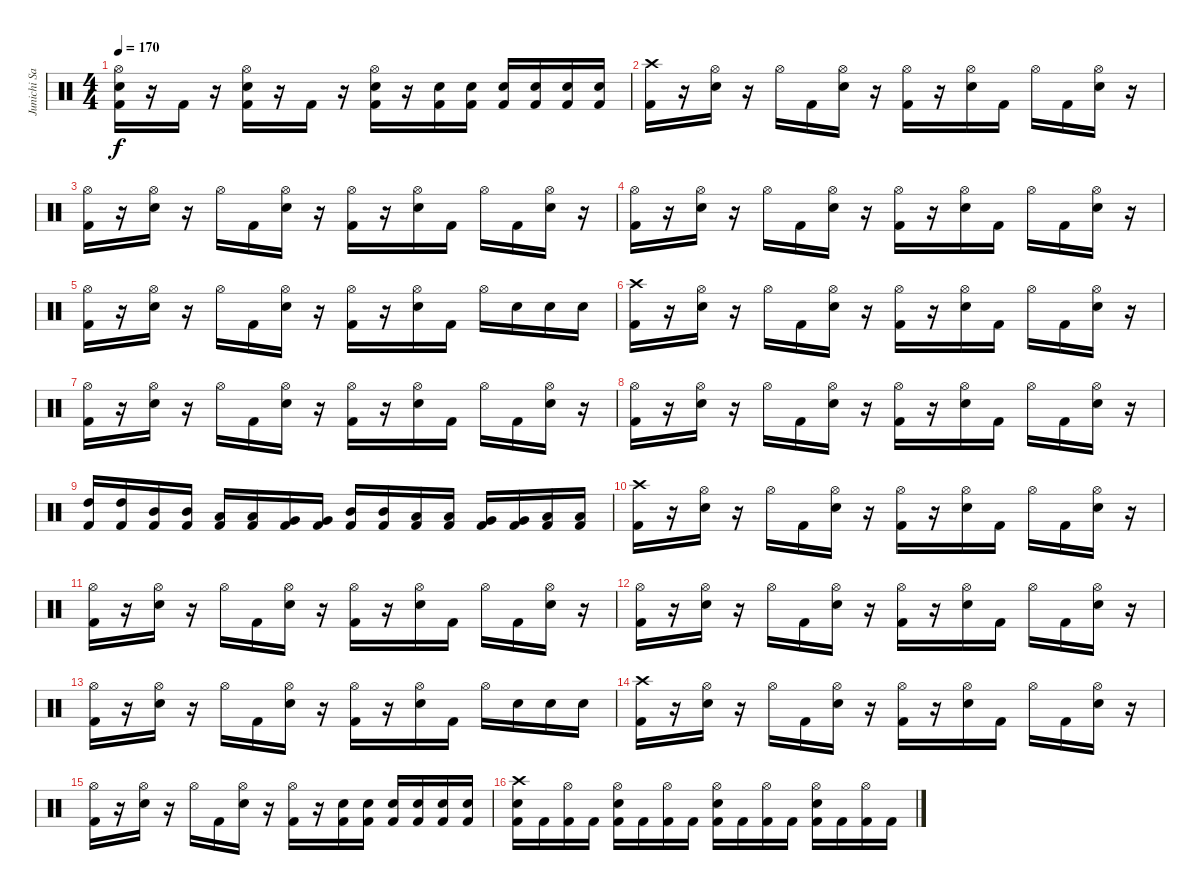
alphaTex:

\track ("Junichi Sato" "Junichi Sa") {instrument percussion}
\staff {score}
\articulation defaults
\ts (4 4)
\tempo 170
\clef neutral
\ks c
("Hi-Hat (open)" "Electric Snare (hit)" "Kick (hit) 2").16{dy f} r.16 "Kick (hit) 2".16 r.16 ("Hi-Hat (open)" "Electric Snare (hit)" "Kick (hit) 2").16 r.16 "Kick (hit) 2".16 r.16 ("Hi-Hat (open)" "Electric Snare (hit)" "Kick (hit) 2").16 r.16 ("Electric Snare (hit)" "Kick (hit) 2").16 ("Electric Snare (hit)" "Kick (hit) 2").16 ("Electric Snare (hit)" "Kick (hit) 2").16 ("Electric Snare (hit)" "Kick (hit) 2").16 ("Electric Snare (hit)" "Kick (hit) 2").16 ("Electric Snare (hit)" "Kick (hit) 2").16 |
("Crash high (hit)" "Kick (hit) 2").16 r.16 ("Hi-Hat (open)" "Electric Snare (hit)").16 r.16 "Hi-Hat (open)".16 "Kick (hit) 2".16 ("Hi-Hat (open)" "Electric Snare (hit)").16 r.16 ("Hi-Hat (open)" "Kick (hit) 2").16 r.16 ("Hi-Hat (open)" "Electric Snare (hit)").16 "Kick (hit) 2".16 "Hi-Hat (open)".16 "Kick (hit) 2".16 ("Hi-Hat (open)" "Electric Snare (hit)").16 r.16 |
("Hi-Hat (open)" "Kick (hit) 2").16 r.16 ("Hi-Hat (open)" "Electric Snare (hit)").16 r.16 "Hi-Hat (open)".16 "Kick (hit) 2".16 ("Hi-Hat (open)" "Electric Snare (hit)").16 r.16 ("Hi-Hat (open)" "Kick (hit) 2").16 r.16 ("Hi-Hat (open)" "Electric Snare (hit)").16 "Kick (hit) 2".16 "Hi-Hat (open)".16 "Kick (hit) 2".16 ("Hi-Hat (open)" "Electric Snare (hit)").16 r.16 |
("Hi-Hat (open)" "Kick (hit) 2").16 r.16 ("Hi-Hat (open)" "Electric Snare (hit)").16 r.16 "Hi-Hat (open)".16 "Kick (hit) 2".16 ("Hi-Hat (open)" "Electric Snare (hit)").16 r.16 ("Hi-Hat (open)" "Kick (hit) 2").16 r.16 ("Hi-Hat (open)" "Electric Snare (hit)").16 "Kick (hit) 2".16 "Hi-Hat (open)".16 "Kick (hit) 2".16 ("Hi-Hat (open)" "Electric Snare (hit)").16 r.16 |
("Hi-Hat (open)" "Kick (hit) 2").16 r.16 ("Hi-Hat (open)" "Electric Snare (hit)").16 r.16 "Hi-Hat (open)".16 "Kick (hit) 2".16 ("Hi-Hat (open)" "Electric Snare (hit)").16 r.16 ("Hi-Hat (open)" "Kick (hit) 2").16 r.16 ("Hi-Hat (open)" "Electric Snare (hit)").16 "Kick (hit) 2".16 "Hi-Hat (open)".16 "Electric Snare (hit)".16 "Electric Snare (hit)".16 "Electric Snare (hit)".16 |
("Crash high (hit)" "Kick (hit) 2").16 r.16 ("Hi-Hat (open)" "Electric Snare (hit)").16 r.16 "Hi-Hat (open)".16 "Kick (hit) 2".16 ("Hi-Hat (open)" "Electric Snare (hit)").16 r.16 ("Hi-Hat (open)" "Kick (hit) 2").16 r.16 ("Hi-Hat (open)" "Electric Snare (hit)").16 "Kick (hit) 2".16 "Hi-Hat (open)".16 "Kick (hit) 2".16 ("Hi-Hat (open)" "Electric Snare (hit)").16 r.16 |
("Hi-Hat (open)" "Kick (hit) 2").16 r.16 ("Hi-Hat (open)" "Electric Snare (hit)").16 r.16 "Hi-Hat (open)".16 "Kick (hit) 2".16 ("Hi-Hat (open)" "Electric Snare (hit)").16 r.16 ("Hi-Hat (open)" "Kick (hit) 2").16 r.16 ("Hi-Hat (open)" "Electric Snare (hit)").16 "Kick (hit) 2".16 "Hi-Hat (open)".16 "Kick (hit) 2".16 ("Hi-Hat (open)" "Electric Snare (hit)").16 r.16 |
("Hi-Hat (open)" "Kick (hit) 2").16 r.16 ("Hi-Hat (open)" "Electric Snare (hit)").16 r.16 "Hi-Hat (open)".16 "Kick (hit) 2".16 ("Hi-Hat (open)" "Electric Snare (hit)").16 r.16 ("Hi-Hat (open)" "Kick (hit) 2").16 r.16 ("Hi-Hat (open)" "Electric Snare (hit)").16 "Kick (hit) 2".16 "Hi-Hat (open)".16 "Kick (hit) 2".16 ("Hi-Hat (open)" "Electric Snare (hit)").16 r.16 |
("High Tom (hit)" "Kick (hit) 2").16 ("High Tom (hit)" "Kick (hit) 2").16 ("Mid Tom (hit)" "Kick (hit) 2").16 ("Mid Tom (hit)" "Kick (hit) 2").16 ("Low Tom (hit)" "Kick (hit) 2").16 ("Low Tom (hit)" "Kick (hit) 2").16 ("Very Low Tom (hit)" "Kick (hit) 2").16 ("Very Low Tom (hit)" "Kick (hit) 2").16 ("Mid Tom (hit)" "Kick (hit) 2").16 ("Mid Tom (hit)" "Kick (hit) 2").16 ("Low Tom (hit)" "Kick (hit) 2").16 ("Low Tom (hit)" "Kick (hit) 2").16 ("Very Low Tom (hit)" "Kick (hit) 2").16 ("Very Low Tom (hit)" "Kick (hit) 2").16 ("Low Floor Tom (hit)" "Kick (hit) 2").16 ("Low Floor Tom (hit)" "Kick (hit) 2").16 |
("Crash high (hit)" "Kick (hit) 2").16 r.16 ("Hi-Hat (open)" "Electric Snare (hit)").16 r.16 "Hi-Hat (open)".16 "Kick (hit) 2".16 ("Hi-Hat (open)" "Electric Snare (hit)").16 r.16 ("Hi-Hat (open)" "Kick (hit) 2").16 r.16 ("Hi-Hat (open)" "Electric Snare (hit)").16 "Kick (hit) 2".16 "Hi-Hat (open)".16 "Kick (hit) 2".16 ("Hi-Hat (open)" "Electric Snare (hit)").16 r.16 |
("Hi-Hat (open)" "Kick (hit) 2").16 r.16 ("Hi-Hat (open)" "Electric Snare (hit)").16 r.16 "Hi-Hat (open)".16 "Kick (hit) 2".16 ("Hi-Hat (open)" "Electric Snare (hit)").16 r.16 ("Hi-Hat (open)" "Kick (hit) 2").16 r.16 ("Hi-Hat (open)" "Electric Snare (hit)").16 "Kick (hit) 2".16 "Hi-Hat (open)".16 "Kick (hit) 2".16 ("Hi-Hat (open)" "Electric Snare (hit)").16 r.16 |
("Hi-Hat (open)" "Kick (hit) 2").16 r.16 ("Hi-Hat (open)" "Electric Snare (hit)").16 r.16 "Hi-Hat (open)".16 "Kick (hit) 2".16 ("Hi-Hat (open)" "Electric Snare (hit)").16 r.16 ("Hi-Hat (open)" "Kick (hit) 2").16 r.16 ("Hi-Hat (open)" "Electric Snare (hit)").16 "Kick (hit) 2".16 "Hi-Hat (open)".16 "Kick (hit) 2".16 ("Hi-Hat (open)" "Electric Snare (hit)").16 r.16 |
("Hi-Hat (open)" "Kick (hit) 2").16 r.16 ("Hi-Hat (open)" "Electric Snare (hit)").16 r.16 "Hi-Hat (open)".16 "Kick (hit) 2".16 ("Hi-Hat (open)" "Electric Snare (hit)").16 r.16 ("Hi-Hat (open)" "Kick (hit) 2").16 r.16 ("Hi-Hat (open)" "Electric Snare (hit)").16 "Kick (hit) 2".16 "Hi-Hat (open)".16 "Electric Snare (hit)".16 "Electric Snare (hit)".16 "Electric Snare (hit)".16 |
("Crash high (hit)" "Kick (hit) 2").16 r.16 ("Hi-Hat (open)" "Electric Snare (hit)").16 r.16 "Hi-Hat (open)".16 "Kick (hit) 2".16 ("Hi-Hat (open)" "Electric Snare (hit)").16 r.16 ("Hi-Hat (open)" "Kick (hit) 2").16 r.16 ("Hi-Hat (open)" "Electric Snare (hit)").16 "Kick (hit) 2".16 "Hi-Hat (open)".16 "Kick (hit) 2".16 ("Hi-Hat (open)" "Electric Snare (hit)").16 r.16 |
("Hi-Hat (open)" "Kick (hit) 2").16 r.16 ("Hi-Hat (open)" "Electric Snare (hit)").16 r.16 "Hi-Hat (open)".16 "Kick (hit) 2".16 ("Hi-Hat (open)" "Electric Snare (hit)").16 r.16 ("Hi-Hat (open)" "Kick (hit) 2").16 r.16 ("Electric Snare (hit)" "Kick (hit) 2").16 ("Electric Snare (hit)" "Kick (hit) 2").16 ("Electric Snare (hit)" "Kick (hit) 2").16 ("Electric Snare (hit)" "Kick (hit) 2").16 ("Electric Snare (hit)" "Kick (hit) 2").16 ("Electric Snare (hit)" "Kick (hit) 2").16 |
("Crash high (hit)" "Electric Snare (hit)" "Kick (hit) 2").16 "Kick (hit) 2".16 ("Hi-Hat (open)" "Kick (hit) 2").16 "Kick (hit) 2".16 ("Hi-Hat (open)" "Electric Snare (hit)" "Kick (hit) 2").16 "Kick (hit) 2".16 ("Hi-Hat (open)" "Kick (hit) 2").16 "Kick (hit) 2".16 ("Hi-Hat (open)" "Electric Snare (hit)" "Kick (hit) 2").16 "Kick (hit) 2".16 ("Hi-Hat (open)" "Kick (hit) 2").16 "Kick (hit) 2".16 ("Hi-Hat (open)" "Electric Snare (hit)" "Kick (hit) 2").16 "Kick (hit) 2".16 ("Hi-Hat (open)" "Kick (hit) 2").16 "Kick (hit) 2".16
